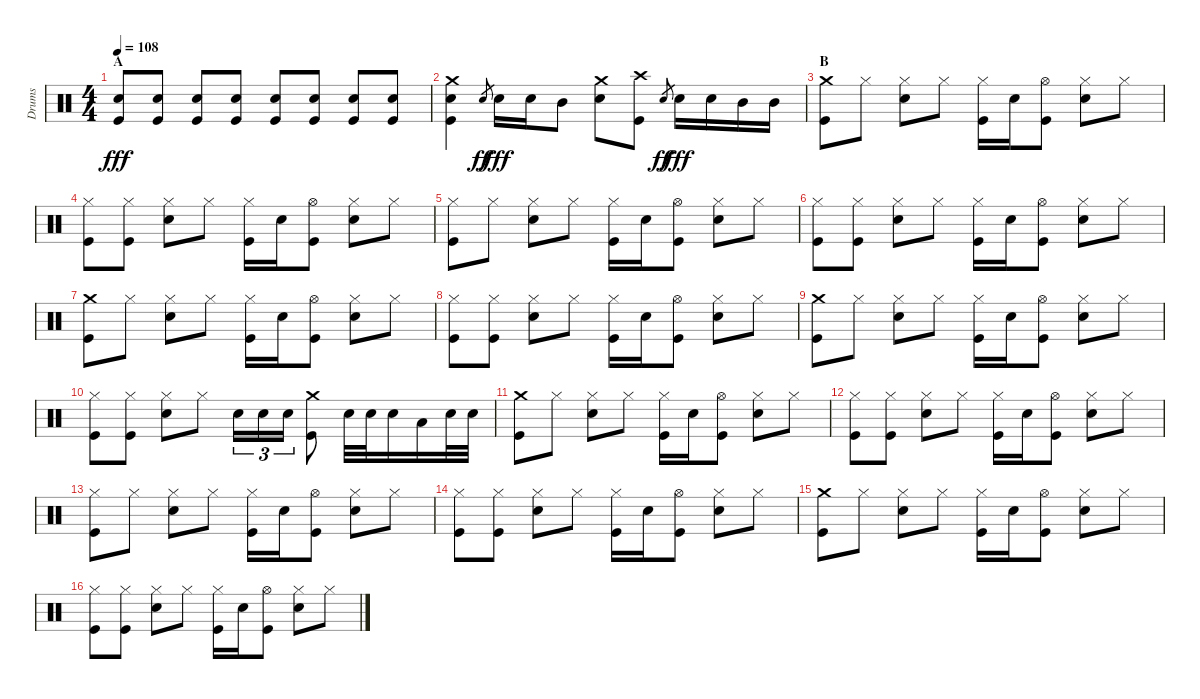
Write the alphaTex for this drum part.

\track ("Drums" "Drums") {instrument percussion}
\staff {score}
\articulation defaults
\ts (4 4)
\section ("" "A")
\tempo 108
\clef neutral
\ks c
("Snare (hit) 2" "Kick (hit)").8{dy fff} ("Snare (hit) 2" "Kick (hit)").8 ("Snare (hit) 2" "Kick (hit)").8 ("Snare (hit) 2" "Kick (hit)").8 ("Snare (hit) 2" "Kick (hit)").8 ("Snare (hit) 2" "Kick (hit)").8 ("Snare (hit) 2" "Kick (hit)").8 ("Snare (hit) 2" "Kick (hit)").8 |
("Crash medium (hit)" "Snare (hit) 2" "Kick (hit)").4 "Snare (hit)".8{gr dy ff} "Snare (hit) 2".16{dy fff} "Snare (hit) 2".16 "Mid Tom (hit)".8 ("Crash medium (hit)" "Snare (hit) 2").8 ("Crash high (hit)" "Kick (hit)").8 "Snare (hit)".8{gr dy ff} "Snare (hit) 2".16{dy fff} "Snare (hit) 2".16 "Mid Tom (hit)".16 "Mid Tom (hit)".16 |
\section ("" "B")
("Crash medium (hit)" "Kick (hit)").8 "Hi-Hat (closed)".8 ("Hi-Hat (closed)" "Snare (hit) 2").8 "Hi-Hat (closed)".8 ("Hi-Hat (closed)" "Kick (hit)").16 "Snare (hit) 2".16 ("Hi-Hat (open)" "Kick (hit)").8 ("Hi-Hat (closed)" "Snare (hit) 2").8 "Hi-Hat (closed)".8 |
("Hi-Hat (closed)" "Kick (hit)").8 ("Hi-Hat (closed)" "Kick (hit)").8 ("Hi-Hat (closed)" "Snare (hit) 2").8 "Hi-Hat (closed)".8 ("Hi-Hat (closed)" "Kick (hit)").16 "Snare (hit) 2".16 ("Hi-Hat (open)" "Kick (hit)").8 ("Hi-Hat (closed)" "Snare (hit) 2").8 "Hi-Hat (closed)".8 |
("Hi-Hat (closed)" "Kick (hit)").8 "Hi-Hat (closed)".8 ("Hi-Hat (closed)" "Snare (hit) 2").8 "Hi-Hat (closed)".8 ("Hi-Hat (closed)" "Kick (hit)").16 "Snare (hit) 2".16 ("Hi-Hat (open)" "Kick (hit)").8 ("Hi-Hat (closed)" "Snare (hit) 2").8 "Hi-Hat (closed)".8 |
("Hi-Hat (closed)" "Kick (hit)").8 ("Hi-Hat (closed)" "Kick (hit)").8 ("Hi-Hat (closed)" "Snare (hit) 2").8 "Hi-Hat (closed)".8 ("Hi-Hat (closed)" "Kick (hit)").16 "Snare (hit) 2".16 ("Hi-Hat (open)" "Kick (hit)").8 ("Hi-Hat (closed)" "Snare (hit) 2").8 "Hi-Hat (closed)".8 |
("Crash medium (hit)" "Kick (hit)").8 "Hi-Hat (closed)".8 ("Hi-Hat (closed)" "Snare (hit) 2").8 "Hi-Hat (closed)".8 ("Hi-Hat (closed)" "Kick (hit)").16 "Snare (hit) 2".16 ("Hi-Hat (open)" "Kick (hit)").8 ("Hi-Hat (closed)" "Snare (hit) 2").8 "Hi-Hat (closed)".8 |
("Hi-Hat (closed)" "Kick (hit)").8 ("Hi-Hat (closed)" "Kick (hit)").8 ("Hi-Hat (closed)" "Snare (hit) 2").8 "Hi-Hat (closed)".8 ("Hi-Hat (closed)" "Kick (hit)").16 "Snare (hit) 2".16 ("Hi-Hat (open)" "Kick (hit)").8 ("Hi-Hat (closed)" "Snare (hit) 2").8 "Hi-Hat (closed)".8 |
("Crash medium (hit)" "Kick (hit)").8 "Hi-Hat (closed)".8 ("Hi-Hat (closed)" "Snare (hit) 2").8 "Hi-Hat (closed)".8 ("Hi-Hat (closed)" "Kick (hit)").16 "Snare (hit) 2".16 ("Hi-Hat (open)" "Kick (hit)").8 ("Hi-Hat (closed)" "Snare (hit) 2").8 "Hi-Hat (closed)".8 |
("Hi-Hat (closed)" "Kick (hit)").8 ("Hi-Hat (closed)" "Kick (hit)").8 ("Hi-Hat (closed)" "Snare (hit) 2").8 "Hi-Hat (closed)".8 "Snare (hit) 2".16{tu (3 2)} "Snare (hit) 2".16{tu (3 2)} "Snare (hit) 2".16{tu (3 2)} ("Crash medium (hit)" "Kick (hit)").8 "Snare (hit) 2".32 "Snare (hit) 2".32 "Snare (hit) 2".16 "Low Tom (hit)".16 "Snare (hit) 2".32 "Snare (hit) 2".32 |
("Crash medium (hit)" "Kick (hit)").8 "Hi-Hat (closed)".8 ("Hi-Hat (closed)" "Snare (hit) 2").8 "Hi-Hat (closed)".8 ("Hi-Hat (closed)" "Kick (hit)").16 "Snare (hit) 2".16 ("Hi-Hat (open)" "Kick (hit)").8 ("Hi-Hat (closed)" "Snare (hit) 2").8 "Hi-Hat (closed)".8 |
("Hi-Hat (closed)" "Kick (hit)").8 ("Hi-Hat (closed)" "Kick (hit)").8 ("Hi-Hat (closed)" "Snare (hit) 2").8 "Hi-Hat (closed)".8 ("Hi-Hat (closed)" "Kick (hit)").16 "Snare (hit) 2".16 ("Hi-Hat (open)" "Kick (hit)").8 ("Hi-Hat (closed)" "Snare (hit) 2").8 "Hi-Hat (closed)".8 |
("Hi-Hat (closed)" "Kick (hit)").8 "Hi-Hat (closed)".8 ("Hi-Hat (closed)" "Snare (hit) 2").8 "Hi-Hat (closed)".8 ("Hi-Hat (closed)" "Kick (hit)").16 "Snare (hit) 2".16 ("Hi-Hat (open)" "Kick (hit)").8 ("Hi-Hat (closed)" "Snare (hit) 2").8 "Hi-Hat (closed)".8 |
("Hi-Hat (closed)" "Kick (hit)").8 ("Hi-Hat (closed)" "Kick (hit)").8 ("Hi-Hat (closed)" "Snare (hit) 2").8 "Hi-Hat (closed)".8 ("Hi-Hat (closed)" "Kick (hit)").16 "Snare (hit) 2".16 ("Hi-Hat (open)" "Kick (hit)").8 ("Hi-Hat (closed)" "Snare (hit) 2").8 "Hi-Hat (closed)".8 |
("Crash medium (hit)" "Kick (hit)").8 "Hi-Hat (closed)".8 ("Hi-Hat (closed)" "Snare (hit) 2").8 "Hi-Hat (closed)".8 ("Hi-Hat (closed)" "Kick (hit)").16 "Snare (hit) 2".16 ("Hi-Hat (open)" "Kick (hit)").8 ("Hi-Hat (closed)" "Snare (hit) 2").8 "Hi-Hat (closed)".8 |
("Hi-Hat (closed)" "Kick (hit)").8 ("Hi-Hat (closed)" "Kick (hit)").8 ("Hi-Hat (closed)" "Snare (hit) 2").8 "Hi-Hat (closed)".8 ("Hi-Hat (closed)" "Kick (hit)").16 "Snare (hit) 2".16 ("Hi-Hat (open)" "Kick (hit)").8 ("Hi-Hat (closed)" "Snare (hit) 2").8 "Hi-Hat (closed)".8
